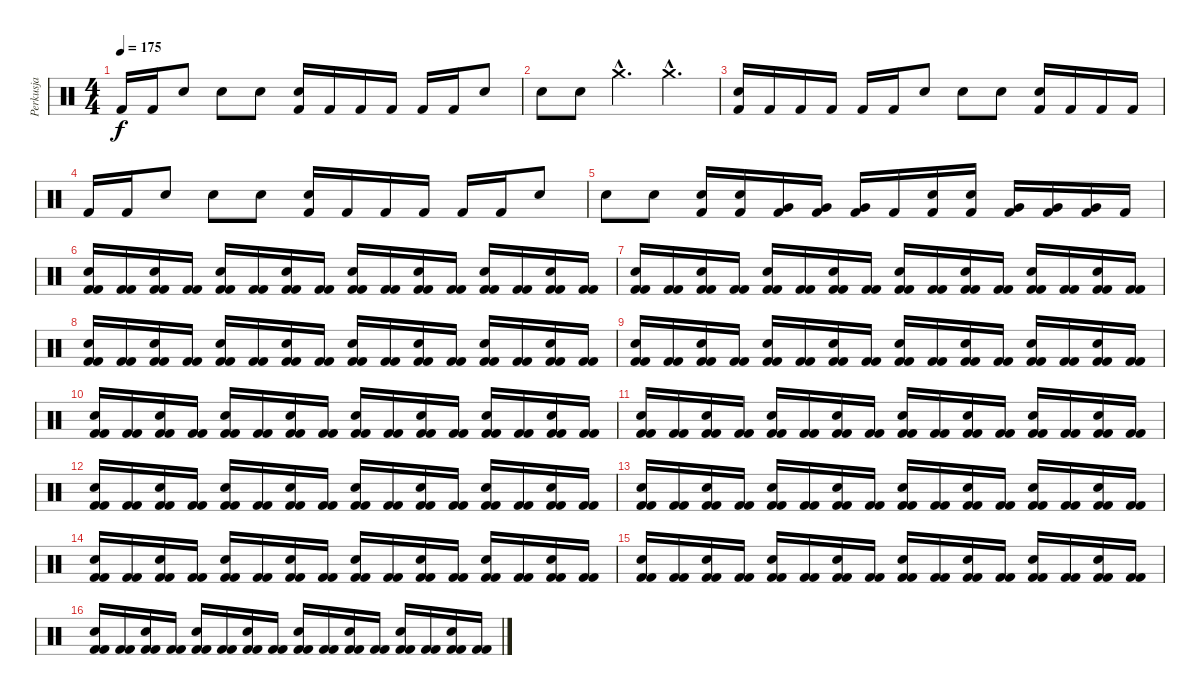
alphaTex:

\track ("Perkusja" "Perkusja") {instrument percussion}
\staff {score}
\articulation defaults
\ts (4 4)
\tempo 175
\clef neutral
\ks c "Kick (hit) 2".16{dy f} "Kick (hit) 2".16 "Snare (hit) 2".8 "Snare (hit) 2".8 "Snare (hit) 2".8
("Snare (hit) 2" "Kick (hit) 2").16 "Kick (hit) 2".16 "Kick (hit) 2".16 "Kick (hit) 2".16 "Kick (hit) 2".16 "Kick (hit) 2".16 "Snare (hit) 2".8 |
"Snare (hit) 2".8 "Snare (hit) 2".8 "Crash medium (hit)"{hac}.4{d} "Crash medium (hit)"{hac}.4{d} |
("Snare (hit) 2" "Kick (hit) 2").16 "Kick (hit) 2".16 "Kick (hit) 2".16 "Kick (hit) 2".16 "Kick (hit) 2".16 "Kick (hit) 2".16 "Snare (hit) 2".8 "Snare (hit) 2".8 "Snare (hit) 2".8 ("Snare (hit) 2" "Kick (hit) 2").16 "Kick (hit) 2".16 "Kick (hit) 2".16 "Kick (hit) 2".16 |
"Kick (hit) 2".16 "Kick (hit) 2".16 "Snare (hit) 2".8 "Snare (hit) 2".8 "Snare (hit) 2".8 ("Snare (hit) 2" "Kick (hit) 2").16 "Kick (hit) 2".16 "Kick (hit) 2".16 "Kick (hit) 2".16 "Kick (hit) 2".16 "Kick (hit) 2".16 "Snare (hit) 2".8 |
"Snare (hit) 2".8 "Snare (hit) 2".8 ("Electric Snare (hit)" "Kick (hit) 2").16 ("Snare (hit) 2" "Kick (hit) 2").16 ("Very Low Tom (hit)" "Kick (hit) 2").16 ("Very Low Tom (hit)" "Kick (hit) 2").16 ("Very Low Tom (hit)" "Kick (hit) 2").16 "Kick (hit) 2".16 ("Electric Snare (hit)" "Kick (hit) 2").16 ("Snare (hit) 2" "Kick (hit) 2").16 ("Very Low Tom (hit)" "Kick (hit) 2").16 ("Very Low Tom (hit)" "Kick (hit) 2").16 ("Very Low Tom (hit)" "Kick (hit) 2").16 "Kick (hit) 2".16 |
("Snare (hit) 2" "Kick (hit) 2" "Kick (hit) 2").16 ("Kick (hit) 2" "Kick (hit) 2").16 ("Snare (hit) 2" "Kick (hit) 2" "Kick (hit) 2").16 ("Kick (hit) 2" "Kick (hit) 2").16 ("Snare (hit) 2" "Kick (hit) 2" "Kick (hit) 2").16 ("Kick (hit) 2" "Kick (hit) 2").16 ("Snare (hit) 2" "Kick (hit) 2" "Kick (hit) 2").16 ("Kick (hit) 2" "Kick (hit) 2").16 ("Snare (hit) 2" "Kick (hit) 2" "Kick (hit) 2").16 ("Kick (hit) 2" "Kick (hit) 2").16 ("Snare (hit) 2" "Kick (hit) 2" "Kick (hit) 2").16 ("Kick (hit) 2" "Kick (hit) 2").16 ("Snare (hit) 2" "Kick (hit) 2" "Kick (hit) 2").16 ("Kick (hit) 2" "Kick (hit) 2").16 ("Snare (hit) 2" "Kick (hit) 2" "Kick (hit) 2").16 ("Kick (hit) 2" "Kick (hit) 2").16 |
("Snare (hit) 2" "Kick (hit) 2" "Kick (hit) 2").16 ("Kick (hit) 2" "Kick (hit) 2").16 ("Snare (hit) 2" "Kick (hit) 2" "Kick (hit) 2").16 ("Kick (hit) 2" "Kick (hit) 2").16 ("Snare (hit) 2" "Kick (hit) 2" "Kick (hit) 2").16 ("Kick (hit) 2" "Kick (hit) 2").16 ("Snare (hit) 2" "Kick (hit) 2" "Kick (hit) 2").16 ("Kick (hit) 2" "Kick (hit) 2").16 ("Snare (hit) 2" "Kick (hit) 2" "Kick (hit) 2").16 ("Kick (hit) 2" "Kick (hit) 2").16 ("Snare (hit) 2" "Kick (hit) 2" "Kick (hit) 2").16 ("Kick (hit) 2" "Kick (hit) 2").16 ("Snare (hit) 2" "Kick (hit) 2" "Kick (hit) 2").16 ("Kick (hit) 2" "Kick (hit) 2").16 ("Snare (hit) 2" "Kick (hit) 2" "Kick (hit) 2").16 ("Kick (hit) 2" "Kick (hit) 2").16 |
("Snare (hit) 2" "Kick (hit) 2" "Kick (hit) 2").16 ("Kick (hit) 2" "Kick (hit) 2").16 ("Snare (hit) 2" "Kick (hit) 2" "Kick (hit) 2").16 ("Kick (hit) 2" "Kick (hit) 2").16 ("Snare (hit) 2" "Kick (hit) 2" "Kick (hit) 2").16 ("Kick (hit) 2" "Kick (hit) 2").16 ("Snare (hit) 2" "Kick (hit) 2" "Kick (hit) 2").16 ("Kick (hit) 2" "Kick (hit) 2").16 ("Snare (hit) 2" "Kick (hit) 2" "Kick (hit) 2").16 ("Kick (hit) 2" "Kick (hit) 2").16 ("Snare (hit) 2" "Kick (hit) 2" "Kick (hit) 2").16 ("Kick (hit) 2" "Kick (hit) 2").16 ("Snare (hit) 2" "Kick (hit) 2" "Kick (hit) 2").16 ("Kick (hit) 2" "Kick (hit) 2").16 ("Snare (hit) 2" "Kick (hit) 2" "Kick (hit) 2").16 ("Kick (hit) 2" "Kick (hit) 2").16 |
("Snare (hit) 2" "Kick (hit) 2" "Kick (hit) 2").16 ("Kick (hit) 2" "Kick (hit) 2").16 ("Snare (hit) 2" "Kick (hit) 2" "Kick (hit) 2").16 ("Kick (hit) 2" "Kick (hit) 2").16 ("Snare (hit) 2" "Kick (hit) 2" "Kick (hit) 2").16 ("Kick (hit) 2" "Kick (hit) 2").16 ("Snare (hit) 2" "Kick (hit) 2" "Kick (hit) 2").16 ("Kick (hit) 2" "Kick (hit) 2").16 ("Snare (hit) 2" "Kick (hit) 2" "Kick (hit) 2").16 ("Kick (hit) 2" "Kick (hit) 2").16 ("Snare (hit) 2" "Kick (hit) 2" "Kick (hit) 2").16 ("Kick (hit) 2" "Kick (hit) 2").16 ("Snare (hit) 2" "Kick (hit) 2" "Kick (hit) 2").16 ("Kick (hit) 2" "Kick (hit) 2").16 ("Snare (hit) 2" "Kick (hit) 2" "Kick (hit) 2").16 ("Kick (hit) 2" "Kick (hit) 2").16 |
("Snare (hit) 2" "Kick (hit) 2" "Kick (hit) 2").16 ("Kick (hit) 2" "Kick (hit) 2").16 ("Snare (hit) 2" "Kick (hit) 2" "Kick (hit) 2").16 ("Kick (hit) 2" "Kick (hit) 2").16 ("Snare (hit) 2" "Kick (hit) 2" "Kick (hit) 2").16 ("Kick (hit) 2" "Kick (hit) 2").16 ("Snare (hit) 2" "Kick (hit) 2" "Kick (hit) 2").16 ("Kick (hit) 2" "Kick (hit) 2").16 ("Snare (hit) 2" "Kick (hit) 2" "Kick (hit) 2").16 ("Kick (hit) 2" "Kick (hit) 2").16 ("Snare (hit) 2" "Kick (hit) 2" "Kick (hit) 2").16 ("Kick (hit) 2" "Kick (hit) 2").16 ("Snare (hit) 2" "Kick (hit) 2" "Kick (hit) 2").16 ("Kick (hit) 2" "Kick (hit) 2").16 ("Snare (hit) 2" "Kick (hit) 2" "Kick (hit) 2").16 ("Kick (hit) 2" "Kick (hit) 2").16 |
("Snare (hit) 2" "Kick (hit) 2" "Kick (hit) 2").16 ("Kick (hit) 2" "Kick (hit) 2").16 ("Snare (hit) 2" "Kick (hit) 2" "Kick (hit) 2").16 ("Kick (hit) 2" "Kick (hit) 2").16 ("Snare (hit) 2" "Kick (hit) 2" "Kick (hit) 2").16 ("Kick (hit) 2" "Kick (hit) 2").16 ("Snare (hit) 2" "Kick (hit) 2" "Kick (hit) 2").16 ("Kick (hit) 2" "Kick (hit) 2").16 ("Snare (hit) 2" "Kick (hit) 2" "Kick (hit) 2").16 ("Kick (hit) 2" "Kick (hit) 2").16 ("Snare (hit) 2" "Kick (hit) 2" "Kick (hit) 2").16 ("Kick (hit) 2" "Kick (hit) 2").16 ("Snare (hit) 2" "Kick (hit) 2" "Kick (hit) 2").16 ("Kick (hit) 2" "Kick (hit) 2").16 ("Snare (hit) 2" "Kick (hit) 2" "Kick (hit) 2").16 ("Kick (hit) 2" "Kick (hit) 2").16 |
("Snare (hit) 2" "Kick (hit) 2" "Kick (hit) 2").16 ("Kick (hit) 2" "Kick (hit) 2").16 ("Snare (hit) 2" "Kick (hit) 2" "Kick (hit) 2").16 ("Kick (hit) 2" "Kick (hit) 2").16 ("Snare (hit) 2" "Kick (hit) 2" "Kick (hit) 2").16 ("Kick (hit) 2" "Kick (hit) 2").16 ("Snare (hit) 2" "Kick (hit) 2" "Kick (hit) 2").16 ("Kick (hit) 2" "Kick (hit) 2").16 ("Snare (hit) 2" "Kick (hit) 2" "Kick (hit) 2").16 ("Kick (hit) 2" "Kick (hit) 2").16 ("Snare (hit) 2" "Kick (hit) 2" "Kick (hit) 2").16 ("Kick (hit) 2" "Kick (hit) 2").16 ("Snare (hit) 2" "Kick (hit) 2" "Kick (hit) 2").16 ("Kick (hit) 2" "Kick (hit) 2").16 ("Snare (hit) 2" "Kick (hit) 2" "Kick (hit) 2").16 ("Kick (hit) 2" "Kick (hit) 2").16 |
("Snare (hit) 2" "Kick (hit) 2" "Kick (hit) 2").16 ("Kick (hit) 2" "Kick (hit) 2").16 ("Snare (hit) 2" "Kick (hit) 2" "Kick (hit) 2").16 ("Kick (hit) 2" "Kick (hit) 2").16 ("Snare (hit) 2" "Kick (hit) 2" "Kick (hit) 2").16 ("Kick (hit) 2" "Kick (hit) 2").16 ("Snare (hit) 2" "Kick (hit) 2" "Kick (hit) 2").16 ("Kick (hit) 2" "Kick (hit) 2").16 ("Snare (hit) 2" "Kick (hit) 2" "Kick (hit) 2").16 ("Kick (hit) 2" "Kick (hit) 2").16 ("Snare (hit) 2" "Kick (hit) 2" "Kick (hit) 2").16 ("Kick (hit) 2" "Kick (hit) 2").16 ("Snare (hit) 2" "Kick (hit) 2" "Kick (hit) 2").16 ("Kick (hit) 2" "Kick (hit) 2").16 ("Snare (hit) 2" "Kick (hit) 2" "Kick (hit) 2").16 ("Kick (hit) 2" "Kick (hit) 2").16 |
("Snare (hit) 2" "Kick (hit) 2" "Kick (hit) 2").16 ("Kick (hit) 2" "Kick (hit) 2").16 ("Snare (hit) 2" "Kick (hit) 2" "Kick (hit) 2").16 ("Kick (hit) 2" "Kick (hit) 2").16 ("Snare (hit) 2" "Kick (hit) 2" "Kick (hit) 2").16 ("Kick (hit) 2" "Kick (hit) 2").16 ("Snare (hit) 2" "Kick (hit) 2" "Kick (hit) 2").16 ("Kick (hit) 2" "Kick (hit) 2").16 ("Snare (hit) 2" "Kick (hit) 2" "Kick (hit) 2").16 ("Kick (hit) 2" "Kick (hit) 2").16 ("Snare (hit) 2" "Kick (hit) 2" "Kick (hit) 2").16 ("Kick (hit) 2" "Kick (hit) 2").16 ("Snare (hit) 2" "Kick (hit) 2" "Kick (hit) 2").16 ("Kick (hit) 2" "Kick (hit) 2").16 ("Snare (hit) 2" "Kick (hit) 2" "Kick (hit) 2").16 ("Kick (hit) 2" "Kick (hit) 2").16 |
("Snare (hit) 2" "Kick (hit) 2" "Kick (hit) 2").16 ("Kick (hit) 2" "Kick (hit) 2").16 ("Snare (hit) 2" "Kick (hit) 2" "Kick (hit) 2").16 ("Kick (hit) 2" "Kick (hit) 2").16 ("Snare (hit) 2" "Kick (hit) 2" "Kick (hit) 2").16 ("Kick (hit) 2" "Kick (hit) 2").16 ("Snare (hit) 2" "Kick (hit) 2" "Kick (hit) 2").16 ("Kick (hit) 2" "Kick (hit) 2").16 ("Snare (hit) 2" "Kick (hit) 2" "Kick (hit) 2").16 ("Kick (hit) 2" "Kick (hit) 2").16 ("Snare (hit) 2" "Kick (hit) 2" "Kick (hit) 2").16 ("Kick (hit) 2" "Kick (hit) 2").16 ("Snare (hit) 2" "Kick (hit) 2" "Kick (hit) 2").16 ("Kick (hit) 2" "Kick (hit) 2").16 ("Snare (hit) 2" "Kick (hit) 2" "Kick (hit) 2").16 ("Kick (hit) 2" "Kick (hit) 2").16 |
("Snare (hit) 2" "Kick (hit) 2" "Kick (hit) 2").16 ("Kick (hit) 2" "Kick (hit) 2").16 ("Snare (hit) 2" "Kick (hit) 2" "Kick (hit) 2").16 ("Kick (hit) 2" "Kick (hit) 2").16 ("Snare (hit) 2" "Kick (hit) 2" "Kick (hit) 2").16 ("Kick (hit) 2" "Kick (hit) 2").16 ("Snare (hit) 2" "Kick (hit) 2" "Kick (hit) 2").16 ("Kick (hit) 2" "Kick (hit) 2").16 ("Snare (hit) 2" "Kick (hit) 2" "Kick (hit) 2").16 ("Kick (hit) 2" "Kick (hit) 2").16 ("Snare (hit) 2" "Kick (hit) 2" "Kick (hit) 2").16 ("Kick (hit) 2" "Kick (hit) 2").16 ("Snare (hit) 2" "Kick (hit) 2" "Kick (hit) 2").16 ("Kick (hit) 2" "Kick (hit) 2").16 ("Snare (hit) 2" "Kick (hit) 2" "Kick (hit) 2").16 ("Kick (hit) 2" "Kick (hit) 2").16
